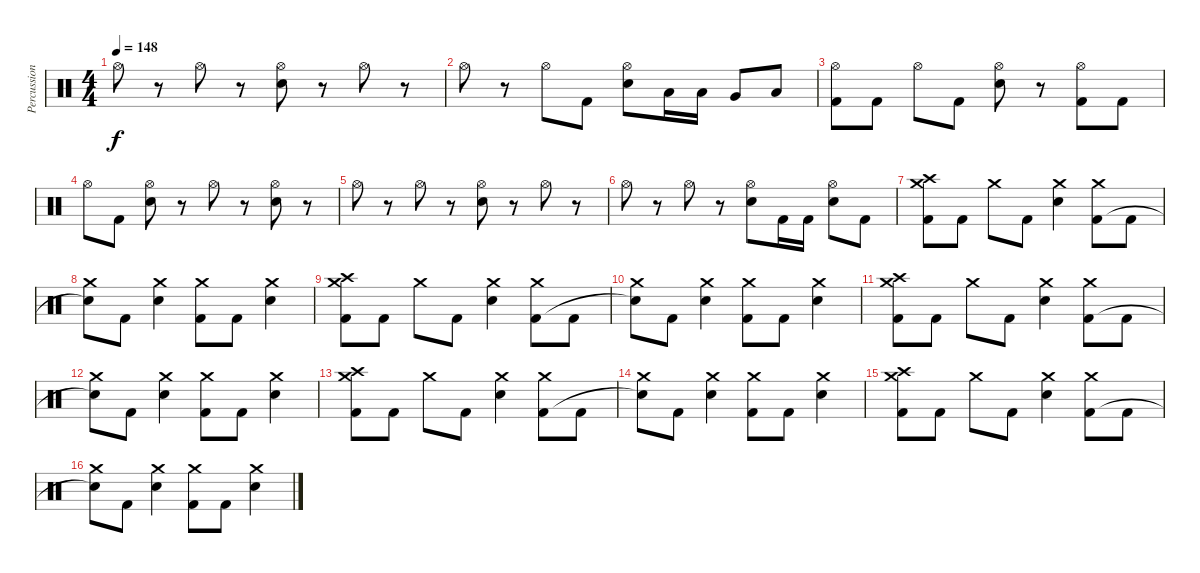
\track ("Percussion" "Percussion") {instrument percussion}
\staff {score}
\articulation defaults
\ts (4 4)
\tempo 148
\clef neutral
\ks c "Hi-Hat (open)".8{dy f}
r.8 "Hi-Hat (open)".8 r.8 ("Hi-Hat (open)" "Electric Snare (hit)").8 r.8 "Hi-Hat (open)".8 r.8 |
"Hi-Hat (open)".8 r.8 "Hi-Hat (open)".8 "Kick (hit) 2".8 ("Hi-Hat (open)" "Electric Snare (hit)").8 "Low Tom (hit)".16 "Low Tom (hit)".16 "Very Low Tom (hit)".8 "Low Floor Tom (hit)".8 |
("Hi-Hat (open)" "Kick (hit) 2").8 "Kick (hit) 2".8 "Hi-Hat (open)".8 "Kick (hit) 2".8 ("Hi-Hat (open)" "Electric Snare (hit)").8 r.8 ("Hi-Hat (open)" "Kick (hit) 2").8 "Kick (hit) 2".8 |
"Hi-Hat (open)".8 "Kick (hit) 2".8 ("Hi-Hat (open)" "Electric Snare (hit)").8 r.8 "Hi-Hat (open)".8 r.8 ("Hi-Hat (open)" "Electric Snare (hit)").8 r.8 |
"Hi-Hat (open)".8 r.8 "Hi-Hat (open)".8 r.8 ("Hi-Hat (open)" "Electric Snare (hit)").8 r.8 "Hi-Hat (open)".8 r.8 |
"Hi-Hat (open)".8 r.8 "Hi-Hat (open)".8 r.8 ("Hi-Hat (open)" "Electric Snare (hit)").8 "Kick (hit) 2".16 "Kick (hit) 2".16 ("Hi-Hat (open)" "Electric Snare (hit)").8 "Kick (hit) 2".8 |
("Crash medium (hit)" "Crash high (hit)" "Kick (hit) 2").8 "Kick (hit) 2".8 "Crash medium (hit)".8 "Kick (hit) 2".8 ("Crash medium (hit)" "Electric Snare (hit)").4 ("Crash medium (hit)" "Kick (hit) 2").8 "Kick (hit) 2".8 |
("Crash medium (hit)" "Snare (hit)"{t}).8 "Kick (hit) 2".8 ("Crash medium (hit)" "Electric Snare (hit)").4 ("Crash medium (hit)" "Kick (hit) 2").8 "Kick (hit) 2".8 ("Crash medium (hit)" "Electric Snare (hit)").4 |
("Crash medium (hit)" "Crash high (hit)" "Kick (hit) 2").8 "Kick (hit) 2".8 "Crash medium (hit)".8 "Kick (hit) 2".8 ("Crash medium (hit)" "Electric Snare (hit)").4 ("Crash medium (hit)" "Kick (hit) 2").8 "Kick (hit) 2".8 |
("Crash medium (hit)" "Snare (hit)"{t}).8 "Kick (hit) 2".8 ("Crash medium (hit)" "Electric Snare (hit)").4 ("Crash medium (hit)" "Kick (hit) 2").8 "Kick (hit) 2".8 ("Crash medium (hit)" "Electric Snare (hit)").4 |
("Crash medium (hit)" "Crash high (hit)" "Kick (hit) 2").8 "Kick (hit) 2".8 "Crash medium (hit)".8 "Kick (hit) 2".8 ("Crash medium (hit)" "Electric Snare (hit)").4 ("Crash medium (hit)" "Kick (hit) 2").8 "Kick (hit) 2".8 |
("Crash medium (hit)" "Snare (hit)"{t}).8 "Kick (hit) 2".8 ("Crash medium (hit)" "Electric Snare (hit)").4 ("Crash medium (hit)" "Kick (hit) 2").8 "Kick (hit) 2".8 ("Crash medium (hit)" "Electric Snare (hit)").4 |
("Crash medium (hit)" "Crash high (hit)" "Kick (hit) 2").8 "Kick (hit) 2".8 "Crash medium (hit)".8 "Kick (hit) 2".8 ("Crash medium (hit)" "Electric Snare (hit)").4 ("Crash medium (hit)" "Kick (hit) 2").8 "Kick (hit) 2".8 |
("Crash medium (hit)" "Snare (hit)"{t}).8 "Kick (hit) 2".8 ("Crash medium (hit)" "Electric Snare (hit)").4 ("Crash medium (hit)" "Kick (hit) 2").8 "Kick (hit) 2".8 ("Crash medium (hit)" "Electric Snare (hit)").4 |
("Crash medium (hit)" "Crash high (hit)" "Kick (hit) 2").8 "Kick (hit) 2".8 "Crash medium (hit)".8 "Kick (hit) 2".8 ("Crash medium (hit)" "Electric Snare (hit)").4 ("Crash medium (hit)" "Kick (hit) 2").8 "Kick (hit) 2".8 |
("Crash medium (hit)" "Snare (hit)"{t}).8 "Kick (hit) 2".8 ("Crash medium (hit)" "Electric Snare (hit)").4 ("Crash medium (hit)" "Kick (hit) 2").8 "Kick (hit) 2".8 ("Crash medium (hit)" "Electric Snare (hit)").4
